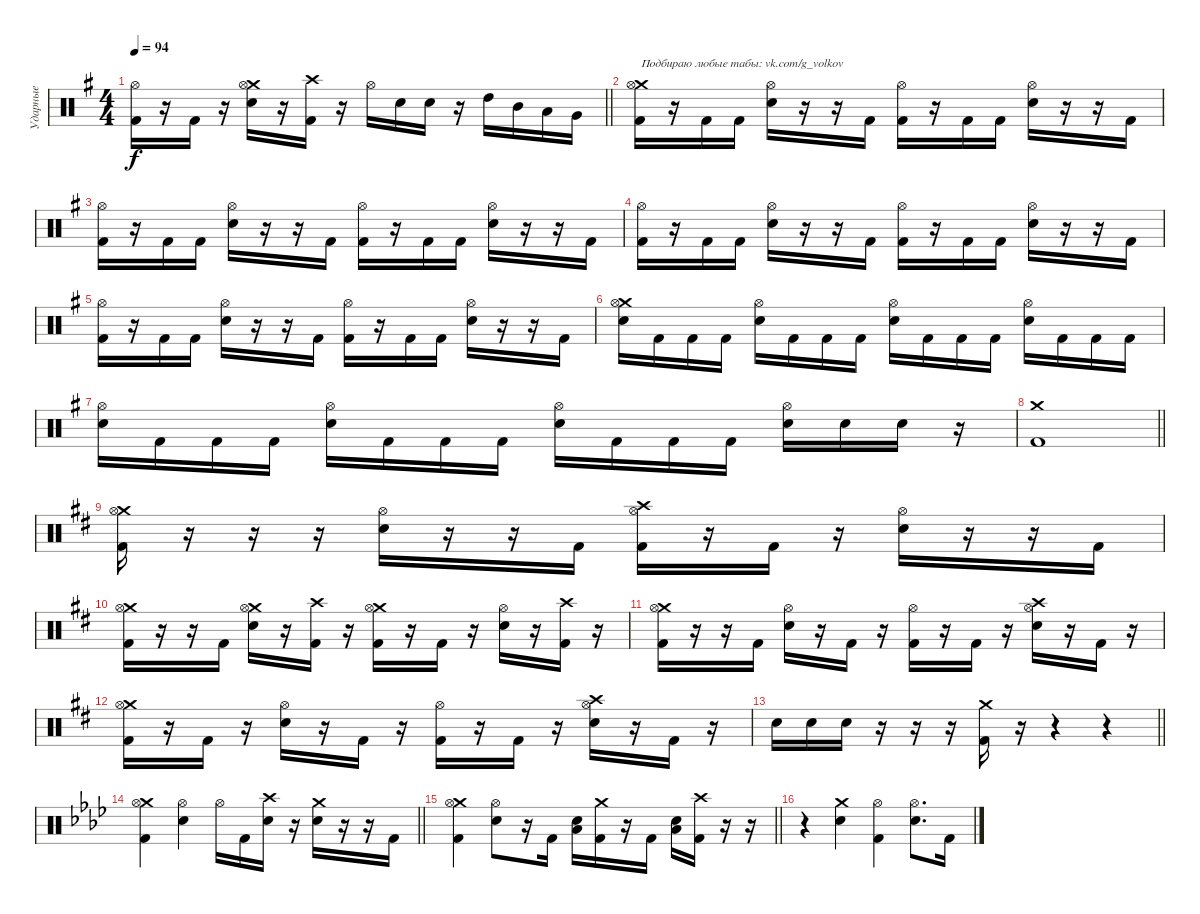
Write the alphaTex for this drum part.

\track ("Ударные" "Ударные") {instrument percussion}
\staff {score}
\articulation defaults
\ts (4 4)
\tempo 94
\clef neutral
\barLineRight lightlight
\ks eminor
("Kick (hit) 2" "Hi-Hat (open)").16{dy f} r.16 "Kick (hit) 2".16 r.16 ("Crash medium (hit)" "Electric Snare (hit)" "Hi-Hat (open)").16 r.16 ("Crash high (hit)" "Kick (hit) 2").16 r.16 "Hi-Hat (open)".16 "Electric Snare (hit)".16 "Electric Snare (hit)".16 r.16 "High Tom (hit)".16 "Mid Tom (hit)".16 "Low Tom (hit)".16 "Very Low Tom (hit)".16 |
\section ("" "")
("Crash medium (hit)" "Kick (hit) 2" "Hi-Hat (open)").16{txt "Подбираю любые табы: vk.com/g_volkov"} r.16 "Kick (hit) 2".16 "Kick (hit) 2".16 ("Electric Snare (hit)" "Hi-Hat (open)").16 r.16 r.16 "Kick (hit) 2".16 ("Kick (hit) 2" "Hi-Hat (open)").16 r.16 "Kick (hit) 2".16 "Kick (hit) 2".16 ("Electric Snare (hit)" "Hi-Hat (open)").16 r.16 r.16 "Kick (hit) 2".16 |
("Kick (hit) 2" "Hi-Hat (open)").16 r.16 "Kick (hit) 2".16 "Kick (hit) 2".16 ("Electric Snare (hit)" "Hi-Hat (open)").16 r.16 r.16 "Kick (hit) 2".16 ("Kick (hit) 2" "Hi-Hat (open)").16 r.16 "Kick (hit) 2".16 "Kick (hit) 2".16 ("Electric Snare (hit)" "Hi-Hat (open)").16 r.16 r.16 "Kick (hit) 2".16 |
("Kick (hit) 2" "Hi-Hat (open)").16 r.16 "Kick (hit) 2".16 "Kick (hit) 2".16 ("Electric Snare (hit)" "Hi-Hat (open)").16 r.16 r.16 "Kick (hit) 2".16 ("Kick (hit) 2" "Hi-Hat (open)").16 r.16 "Kick (hit) 2".16 "Kick (hit) 2".16 ("Electric Snare (hit)" "Hi-Hat (open)").16 r.16 r.16 "Kick (hit) 2".16 |
("Kick (hit) 2" "Hi-Hat (open)").16 r.16 "Kick (hit) 2".16 "Kick (hit) 2".16 ("Electric Snare (hit)" "Hi-Hat (open)").16 r.16 r.16 "Kick (hit) 2".16 ("Kick (hit) 2" "Hi-Hat (open)").16 r.16 "Kick (hit) 2".16 "Kick (hit) 2".16 ("Electric Snare (hit)" "Hi-Hat (open)").16 r.16 r.16 "Kick (hit) 2".16 |
("Crash medium (hit)" "Electric Snare (hit)" "Hi-Hat (open)").16 "Kick (hit) 2".16 "Kick (hit) 2".16 "Kick (hit) 2".16 ("Electric Snare (hit)" "Hi-Hat (open)").16 "Kick (hit) 2".16 "Kick (hit) 2".16 "Kick (hit) 2".16 ("Electric Snare (hit)" "Hi-Hat (open)").16 "Kick (hit) 2".16 "Kick (hit) 2".16 "Kick (hit) 2".16 ("Electric Snare (hit)" "Hi-Hat (open)").16 "Kick (hit) 2".16 "Kick (hit) 2".16 "Kick (hit) 2".16 |
("Electric Snare (hit)" "Hi-Hat (open)").16 "Kick (hit) 2".16 "Kick (hit) 2".16 "Kick (hit) 2".16 ("Electric Snare (hit)" "Hi-Hat (open)").16 "Kick (hit) 2".16 "Kick (hit) 2".16 "Kick (hit) 2".16 ("Electric Snare (hit)" "Hi-Hat (open)").16 "Kick (hit) 2".16 "Kick (hit) 2".16 "Kick (hit) 2".16 ("Electric Snare (hit)" "Hi-Hat (open)").16 "Electric Snare (hit)".16 "Electric Snare (hit)".16 r.16 |
\barLineRight lightlight
("Crash medium (hit)" "Kick (hit) 2").1 |
\section ("" "")
\ks bminor
("Crash medium (hit)" "Kick (hit) 2" "Hi-Hat (open)").16 r.16 r.16 r.16 ("Electric Snare (hit)" "Hi-Hat (open)").16 r.16 r.16 "Kick (hit) 2".16 ("Crash high (hit)" "Kick (hit) 2" "Hi-Hat (open)").16 r.16 "Kick (hit) 2".16 r.16 ("Electric Snare (hit)" "Hi-Hat (open)").16 r.16 r.16 "Kick (hit) 2".16 |
("Crash medium (hit)" "Kick (hit) 2" "Hi-Hat (open)").16 r.16 r.16 "Kick (hit) 2".16 ("Crash medium (hit)" "Electric Snare (hit)" "Hi-Hat (open)").16 r.16 ("Crash high (hit)" "Kick (hit) 2").16 r.16 ("Crash medium (hit)" "Kick (hit) 2" "Hi-Hat (open)").16 r.16 "Kick (hit) 2".16 r.16 ("Electric Snare (hit)" "Hi-Hat (open)").16 r.16 ("Crash high (hit)" "Kick (hit) 2").16 r.16 |
("Crash medium (hit)" "Kick (hit) 2" "Hi-Hat (open)").16 r.16 r.16 "Kick (hit) 2".16 ("Electric Snare (hit)" "Hi-Hat (open)").16 r.16 "Kick (hit) 2".16 r.16 ("Kick (hit) 2" "Hi-Hat (open)").16 r.16 "Kick (hit) 2".16 r.16 ("Crash high (hit)" "Electric Snare (hit)" "Hi-Hat (open)").16 r.16 "Kick (hit) 2".16 r.16 |
("Crash medium (hit)" "Kick (hit) 2" "Hi-Hat (open)").16 r.16 "Kick (hit) 2".16 r.16 ("Electric Snare (hit)" "Hi-Hat (open)").16 r.16 "Kick (hit) 2".16 r.16 ("Kick (hit) 2" "Hi-Hat (open)").16 r.16 "Kick (hit) 2".16 r.16 ("Crash high (hit)" "Electric Snare (hit)" "Hi-Hat (open)").16 r.16 "Kick (hit) 2".16 r.16 |
\barLineRight lightlight "Electric Snare (hit)".16 "Electric Snare (hit)".16 "Electric Snare (hit)".16
r.16 r.16 r.16 ("Crash medium (hit)" "Kick (hit) 2").16 r.16 r.4 r.4 |
\section ("" "")
\barLineRight lightlight
\ks fminor
("Crash medium (hit)" "Kick (hit) 2" "Hi-Hat (open)").4 ("Electric Snare (hit)" "Hi-Hat (open)").4 "Hi-Hat (open)".16 "Kick (hit) 2".16 ("Crash high (hit)" "Electric Snare (hit)").16 r.16 ("Crash medium (hit)" "Electric Snare (hit)").16 r.16 r.16 "Kick (hit) 2".16 |
\barLineRight lightlight
("Crash medium (hit)" "Kick (hit) 2" "Hi-Hat (open)").4 ("Electric Snare (hit)" "Hi-Hat (open)").8 r.16 "Kick (hit) 2".16 ("Electric Snare (hit)" "Low Tom (hit)").16 ("Crash medium (hit)" "Kick (hit) 2").16 r.16 "Kick (hit) 2".16 ("Electric Snare (hit)" "Low Tom (hit)").16 ("Crash high (hit)" "Kick (hit) 2").16 r.16 r.16 |
r.4 ("Crash medium (hit)" "Electric Snare (hit)").4 ("Kick (hit) 2" "Hi-Hat (open)").4 ("Electric Snare (hit)" "Hi-Hat (open)").8{d} "Kick (hit) 2".16
